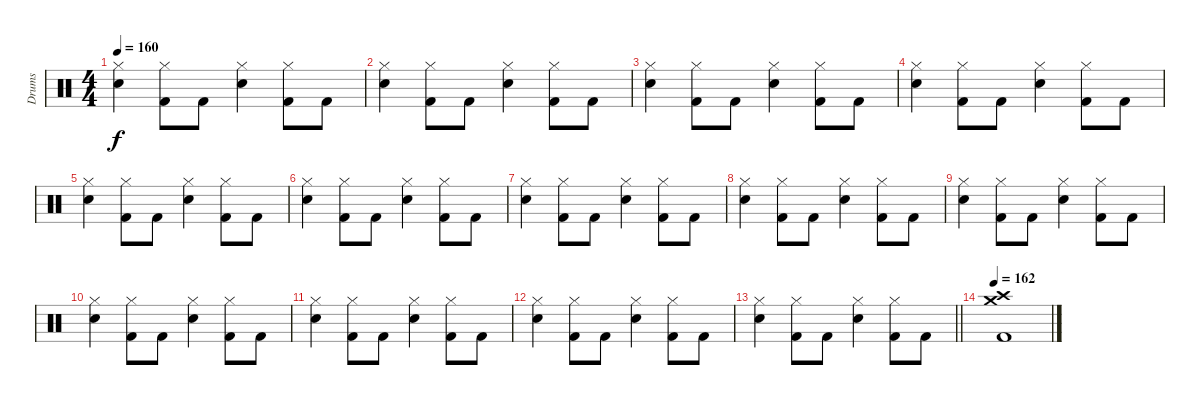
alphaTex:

\track ("Drums" "Drums") {instrument percussion}
\staff {score}
\articulation defaults
\ts (4 4)
\tempo 160
\clef neutral
\ks c
("Hi-Hat (closed)" "Electric Snare (hit)").4{dy f} ("Hi-Hat (closed)" "Kick (hit) 2").8 "Kick (hit) 2".8 ("Hi-Hat (closed)" "Electric Snare (hit)").4 ("Hi-Hat (closed)" "Kick (hit) 2").8 "Kick (hit) 2".8 |
("Hi-Hat (closed)" "Electric Snare (hit)").4 ("Hi-Hat (closed)" "Kick (hit) 2").8 "Kick (hit) 2".8 ("Hi-Hat (closed)" "Electric Snare (hit)").4 ("Hi-Hat (closed)" "Kick (hit) 2").8 "Kick (hit) 2".8 |
("Hi-Hat (closed)" "Electric Snare (hit)").4 ("Hi-Hat (closed)" "Kick (hit) 2").8 "Kick (hit) 2".8 ("Hi-Hat (closed)" "Electric Snare (hit)").4 ("Hi-Hat (closed)" "Kick (hit) 2").8 "Kick (hit) 2".8 |
("Hi-Hat (closed)" "Electric Snare (hit)").4 ("Hi-Hat (closed)" "Kick (hit) 2").8 "Kick (hit) 2".8 ("Hi-Hat (closed)" "Electric Snare (hit)").4 ("Hi-Hat (closed)" "Kick (hit) 2").8 "Kick (hit) 2".8 |
("Hi-Hat (closed)" "Electric Snare (hit)").4 ("Hi-Hat (closed)" "Kick (hit) 2").8 "Kick (hit) 2".8 ("Hi-Hat (closed)" "Electric Snare (hit)").4 ("Hi-Hat (closed)" "Kick (hit) 2").8 "Kick (hit) 2".8 |
("Hi-Hat (closed)" "Electric Snare (hit)").4 ("Hi-Hat (closed)" "Kick (hit) 2").8 "Kick (hit) 2".8 ("Hi-Hat (closed)" "Electric Snare (hit)").4 ("Hi-Hat (closed)" "Kick (hit) 2").8 "Kick (hit) 2".8 |
("Hi-Hat (closed)" "Electric Snare (hit)").4 ("Hi-Hat (closed)" "Kick (hit) 2").8 "Kick (hit) 2".8 ("Hi-Hat (closed)" "Electric Snare (hit)").4 ("Hi-Hat (closed)" "Kick (hit) 2").8 "Kick (hit) 2".8 |
("Hi-Hat (closed)" "Electric Snare (hit)").4 ("Hi-Hat (closed)" "Kick (hit) 2").8 "Kick (hit) 2".8 ("Hi-Hat (closed)" "Electric Snare (hit)").4 ("Hi-Hat (closed)" "Kick (hit) 2").8 "Kick (hit) 2".8 |
("Hi-Hat (closed)" "Electric Snare (hit)").4 ("Hi-Hat (closed)" "Kick (hit) 2").8 "Kick (hit) 2".8 ("Hi-Hat (closed)" "Electric Snare (hit)").4 ("Hi-Hat (closed)" "Kick (hit) 2").8 "Kick (hit) 2".8 |
("Hi-Hat (closed)" "Electric Snare (hit)").4 ("Hi-Hat (closed)" "Kick (hit) 2").8 "Kick (hit) 2".8 ("Hi-Hat (closed)" "Electric Snare (hit)").4 ("Hi-Hat (closed)" "Kick (hit) 2").8 "Kick (hit) 2".8 |
("Hi-Hat (closed)" "Electric Snare (hit)").4 ("Hi-Hat (closed)" "Kick (hit) 2").8 "Kick (hit) 2".8 ("Hi-Hat (closed)" "Electric Snare (hit)").4 ("Hi-Hat (closed)" "Kick (hit) 2").8 "Kick (hit) 2".8 |
("Hi-Hat (closed)" "Electric Snare (hit)").4 ("Hi-Hat (closed)" "Kick (hit) 2").8 "Kick (hit) 2".8 ("Hi-Hat (closed)" "Electric Snare (hit)").4 ("Hi-Hat (closed)" "Kick (hit) 2").8 "Kick (hit) 2".8 |
\barLineRight lightlight
("Hi-Hat (closed)" "Electric Snare (hit)").4 ("Hi-Hat (closed)" "Kick (hit) 2").8 "Kick (hit) 2".8 ("Hi-Hat (closed)" "Electric Snare (hit)").4 ("Hi-Hat (closed)" "Kick (hit) 2").8 "Kick (hit) 2".8 |
\section ("" "")
\tempo 162
("Crash medium (hit)" "Crash high (hit)" "Kick (hit) 2").1
